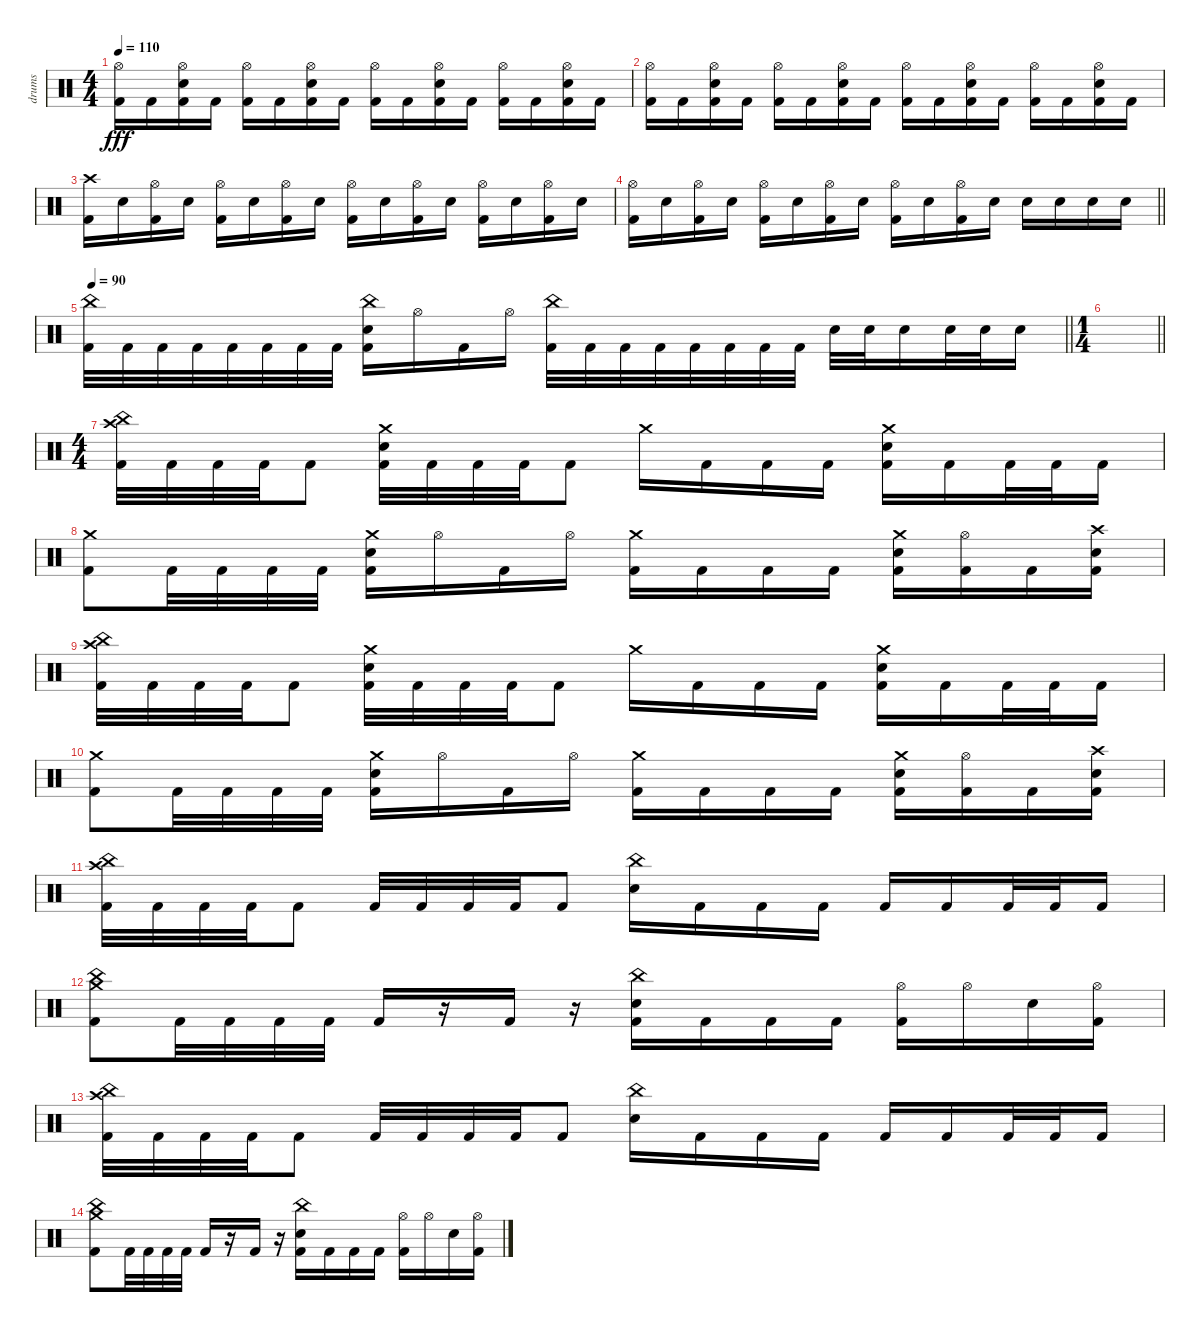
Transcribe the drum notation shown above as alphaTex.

\track ("drums" "drums") {instrument percussion}
\staff {score}
\articulation defaults
\ts (4 4)
\tempo 110
\clef neutral
\ks c
("Hi-Hat (open)" "Kick (hit) 2").16{dy fff} "Kick (hit) 2".16 ("Hi-Hat (open)" "Electric Snare (hit)" "Kick (hit) 2").16 "Kick (hit) 2".16 ("Hi-Hat (open)" "Kick (hit) 2").16 "Kick (hit) 2".16 ("Hi-Hat (open)" "Electric Snare (hit)" "Kick (hit) 2").16 "Kick (hit) 2".16 ("Hi-Hat (open)" "Kick (hit) 2").16 "Kick (hit) 2".16 ("Hi-Hat (open)" "Electric Snare (hit)" "Kick (hit) 2").16 "Kick (hit) 2".16 ("Hi-Hat (open)" "Kick (hit) 2").16 "Kick (hit) 2".16 ("Hi-Hat (open)" "Electric Snare (hit)" "Kick (hit) 2").16 "Kick (hit) 2".16 |
("Hi-Hat (open)" "Kick (hit) 2").16 "Kick (hit) 2".16 ("Hi-Hat (open)" "Electric Snare (hit)" "Kick (hit) 2").16 "Kick (hit) 2".16 ("Hi-Hat (open)" "Kick (hit) 2").16 "Kick (hit) 2".16 ("Hi-Hat (open)" "Electric Snare (hit)" "Kick (hit) 2").16 "Kick (hit) 2".16 ("Hi-Hat (open)" "Kick (hit) 2").16 "Kick (hit) 2".16 ("Hi-Hat (open)" "Electric Snare (hit)" "Kick (hit) 2").16 "Kick (hit) 2".16 ("Hi-Hat (open)" "Kick (hit) 2").16 "Kick (hit) 2".16 ("Hi-Hat (open)" "Electric Snare (hit)" "Kick (hit) 2").16 "Kick (hit) 2".16 |
("Crash high (hit)" "Kick (hit) 2").16 "Electric Snare (hit)".16 ("Hi-Hat (open)" "Kick (hit) 2").16 "Electric Snare (hit)".16 ("Hi-Hat (open)" "Kick (hit) 2").16 "Electric Snare (hit)".16 ("Hi-Hat (open)" "Kick (hit) 2").16 "Electric Snare (hit)".16 ("Hi-Hat (open)" "Kick (hit) 2").16 "Electric Snare (hit)".16 ("Hi-Hat (open)" "Kick (hit) 2").16 "Electric Snare (hit)".16 ("Hi-Hat (open)" "Kick (hit) 2").16 "Electric Snare (hit)".16 ("Hi-Hat (open)" "Kick (hit) 2").16 "Electric Snare (hit)".16 |
\barLineRight lightlight
("Hi-Hat (open)" "Kick (hit) 2").16 "Electric Snare (hit)".16 ("Hi-Hat (open)" "Kick (hit) 2").16 "Electric Snare (hit)".16 ("Hi-Hat (open)" "Kick (hit) 2").16 "Electric Snare (hit)".16 ("Hi-Hat (open)" "Kick (hit) 2").16 "Electric Snare (hit)".16 ("Hi-Hat (open)" "Kick (hit) 2").16 "Electric Snare (hit)".16 ("Hi-Hat (open)" "Kick (hit) 2").16 "Electric Snare (hit)".16 "Electric Snare (hit)".16 "Electric Snare (hit)".16 "Electric Snare (hit)".16 "Electric Snare (hit)".16 |
\section ("" "")
\tempo 90
\barLineRight lightlight
("China (hit)" "Kick (hit) 2").32 "Kick (hit) 2".32 "Kick (hit) 2".32 "Kick (hit) 2".32 "Kick (hit) 2".32 "Kick (hit) 2".32 "Kick (hit) 2".32 "Kick (hit) 2".32 ("China (hit)" "Electric Snare (hit)" "Kick (hit) 2").16 "Hi-Hat (open)".16 "Kick (hit) 2".16 "Hi-Hat (open)".16 ("China (hit)" "Kick (hit) 2").32 "Kick (hit) 2".32 "Kick (hit) 2".32 "Kick (hit) 2".32 "Kick (hit) 2".32 "Kick (hit) 2".32 "Kick (hit) 2".32 "Kick (hit) 2".32 "Electric Snare (hit)".32 "Electric Snare (hit)".32 "Electric Snare (hit)".16 "Electric Snare (hit)".32 "Electric Snare (hit)".32 "Electric Snare (hit)".16 |
\ts (1 4)
\barLineRight lightlight
|
\ts (4 4)
\section ("" "")
("Crash high (hit)" "China (hit)" "Kick (hit) 2").32 "Kick (hit) 2".32 "Kick (hit) 2".32 "Kick (hit) 2".32 "Kick (hit) 2".8 ("Crash medium (hit)" "Electric Snare (hit)" "Kick (hit) 2").32 "Kick (hit) 2".32 "Kick (hit) 2".32 "Kick (hit) 2".32 "Kick (hit) 2".8 "Crash medium (hit)".16 "Kick (hit) 2".16 "Kick (hit) 2".16 "Kick (hit) 2".16 ("Crash medium (hit)" "Electric Snare (hit)" "Kick (hit) 2").16 "Kick (hit) 2".16 "Kick (hit) 2".32 "Kick (hit) 2".32 "Kick (hit) 2".16 |
("Crash medium (hit)" "Kick (hit) 2").8 "Kick (hit) 2".32 "Kick (hit) 2".32 "Kick (hit) 2".32 "Kick (hit) 2".32 ("Crash medium (hit)" "Electric Snare (hit)" "Kick (hit) 2").16 "Hi-Hat (open)".16 "Kick (hit) 2".16 "Hi-Hat (open)".16 ("Crash medium (hit)" "Kick (hit) 2").16 "Kick (hit) 2".16 "Kick (hit) 2".16 "Kick (hit) 2".16 ("Crash medium (hit)" "Electric Snare (hit)" "Kick (hit) 2").16 ("Hi-Hat (open)" "Kick (hit) 2").16 "Kick (hit) 2".16 ("Crash high (hit)" "Electric Snare (hit)" "Kick (hit) 2").16 |
("Crash high (hit)" "China (hit)" "Kick (hit) 2").32 "Kick (hit) 2".32 "Kick (hit) 2".32 "Kick (hit) 2".32 "Kick (hit) 2".8 ("Crash medium (hit)" "Electric Snare (hit)" "Kick (hit) 2").32 "Kick (hit) 2".32 "Kick (hit) 2".32 "Kick (hit) 2".32 "Kick (hit) 2".8 "Crash medium (hit)".16 "Kick (hit) 2".16 "Kick (hit) 2".16 "Kick (hit) 2".16 ("Crash medium (hit)" "Electric Snare (hit)" "Kick (hit) 2").16 "Kick (hit) 2".16 "Kick (hit) 2".32 "Kick (hit) 2".32 "Kick (hit) 2".16 |
("Crash medium (hit)" "Kick (hit) 2").8 "Kick (hit) 2".32 "Kick (hit) 2".32 "Kick (hit) 2".32 "Kick (hit) 2".32 ("Crash medium (hit)" "Electric Snare (hit)" "Kick (hit) 2").16 "Hi-Hat (open)".16 "Kick (hit) 2".16 "Hi-Hat (open)".16 ("Crash medium (hit)" "Kick (hit) 2").16 "Kick (hit) 2".16 "Kick (hit) 2".16 "Kick (hit) 2".16 ("Crash medium (hit)" "Electric Snare (hit)" "Kick (hit) 2").16 ("Hi-Hat (open)" "Kick (hit) 2").16 "Kick (hit) 2".16 ("Crash high (hit)" "Electric Snare (hit)" "Kick (hit) 2").16 |
("Crash high (hit)" "China (hit)" "Kick (hit) 2").32 "Kick (hit) 2".32 "Kick (hit) 2".32 "Kick (hit) 2".32 "Kick (hit) 2".8 "Kick (hit) 2".32 "Kick (hit) 2".32 "Kick (hit) 2".32 "Kick (hit) 2".32 "Kick (hit) 2".8 ("China (hit)" "Electric Snare (hit)").16 "Kick (hit) 2".16 "Kick (hit) 2".16 "Kick (hit) 2".16 "Kick (hit) 2".16 "Kick (hit) 2".16 "Kick (hit) 2".32 "Kick (hit) 2".32 "Kick (hit) 2".16 |
("Crash medium (hit)" "China (hit)" "Kick (hit) 2").8 "Kick (hit) 2".32 "Kick (hit) 2".32 "Kick (hit) 2".32 "Kick (hit) 2".32 "Kick (hit) 2".16 r.16 "Kick (hit) 2".16 r.16 ("China (hit)" "Electric Snare (hit)" "Kick (hit) 2").16 "Kick (hit) 2".16 "Kick (hit) 2".16 "Kick (hit) 2".16 ("Hi-Hat (open)" "Kick (hit) 2").16 "Hi-Hat (open)".16 "Electric Snare (hit)".16 ("Hi-Hat (open)" "Kick (hit) 2").16 |
("Crash high (hit)" "China (hit)" "Kick (hit) 2").32 "Kick (hit) 2".32 "Kick (hit) 2".32 "Kick (hit) 2".32 "Kick (hit) 2".8 "Kick (hit) 2".32 "Kick (hit) 2".32 "Kick (hit) 2".32 "Kick (hit) 2".32 "Kick (hit) 2".8 ("China (hit)" "Electric Snare (hit)").16 "Kick (hit) 2".16 "Kick (hit) 2".16 "Kick (hit) 2".16 "Kick (hit) 2".16 "Kick (hit) 2".16 "Kick (hit) 2".32 "Kick (hit) 2".32 "Kick (hit) 2".16 |
("Crash medium (hit)" "China (hit)" "Kick (hit) 2").8 "Kick (hit) 2".32 "Kick (hit) 2".32 "Kick (hit) 2".32 "Kick (hit) 2".32 "Kick (hit) 2".16 r.16 "Kick (hit) 2".16 r.16 ("China (hit)" "Electric Snare (hit)" "Kick (hit) 2").16 "Kick (hit) 2".16 "Kick (hit) 2".16 "Kick (hit) 2".16 ("Hi-Hat (open)" "Kick (hit) 2").16 "Hi-Hat (open)".16 "Electric Snare (hit)".16 ("Hi-Hat (open)" "Kick (hit) 2").16
